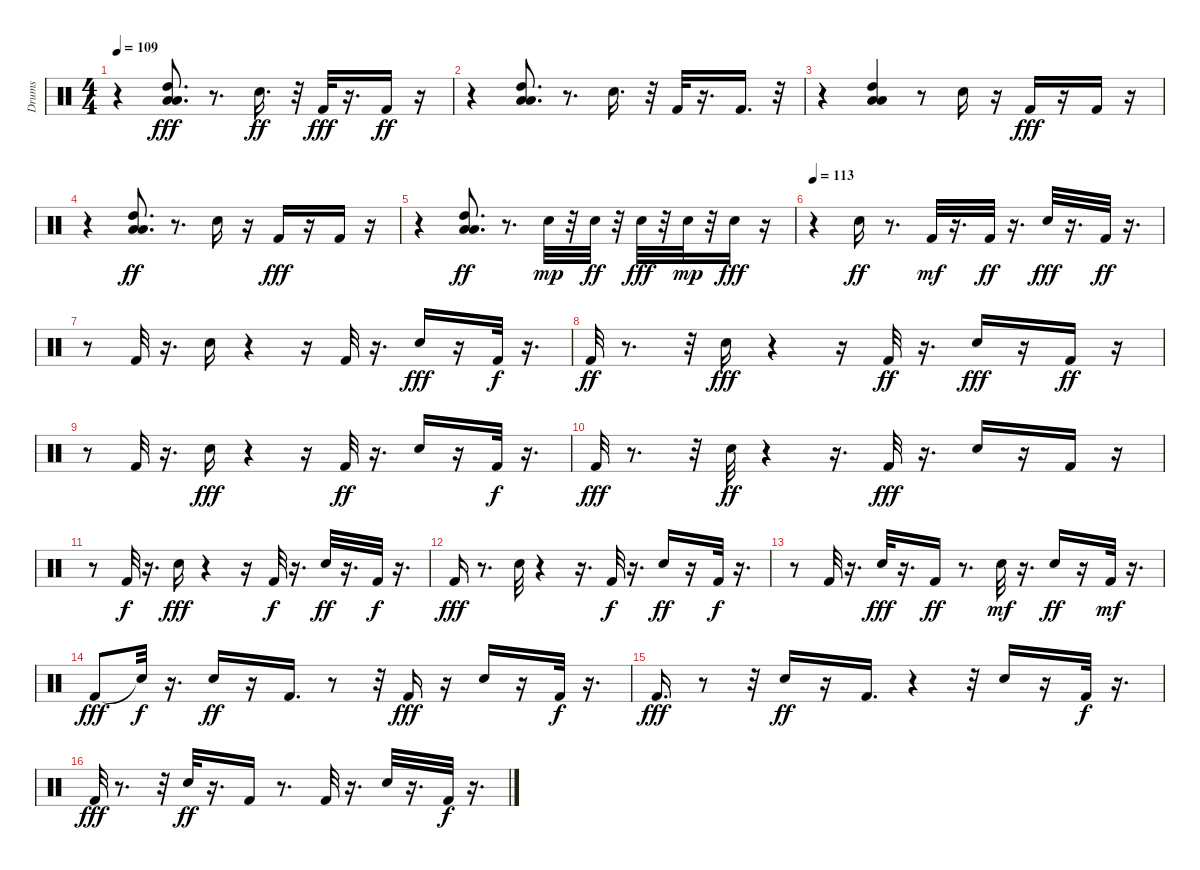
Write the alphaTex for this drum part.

\track ("Drums" "Drums") {instrument percussion}
\staff {score}
\articulation defaults
\ts (4 4)
\tempo 109
\clef neutral
\ks c
r.4{dy ff} ("Low Tom (hit)" "High Tom (hit)" "Low Floor Tom (hit)").8{d dy fff} r.8{d} "Hand Clap (hit)".16{d dy ff} r.32 "Kick (hit) 2".32{dy fff} r.16{d} "Kick (hit) 2".16{dy ff} r.16 |
r.4 ("Low Tom (hit)" "High Tom (hit)" "Low Floor Tom (hit)").8{d} r.8{d} "Hand Clap (hit)".16{d} r.32 "Kick (hit) 2".32 r.16{d} "Kick (hit) 2".16{d} r.32 |
r.4 ("Low Floor Tom (hit)" "Low Tom (hit)" "High Tom (hit)").4 r.8 "Hand Clap (hit)".16 r.16 "Kick (hit) 2".16{dy fff} r.16 "Kick (hit) 2".16 r.16 |
r.4 ("Low Floor Tom (hit)" "Low Tom (hit)" "High Tom (hit)").8{d dy ff} r.8{d} "Hand Clap (hit)".16 r.16 "Kick (hit) 2".16{dy fff} r.16 "Kick (hit) 2".16 r.16 |
r.4 ("Low Floor Tom (hit)" "Low Tom (hit)" "High Tom (hit)").8{d dy ff} r.8{d} "Snare (hit) 2".32{dy mp} r.32 "Snare (hit) 2".32{dy ff} r.32 "Snare (hit) 2".32{dy fff} r.32 "Snare (hit) 2".32{dy mp} r.32 "Snare (hit) 2".16{dy fff} r.16 |
\tempo 113
r.4 "Snare (hit) 2".16{dy ff} r.8{d} "Kick (hit) 2".32{dy mf} r.16{d} "Kick (hit) 2".32{dy ff} r.16{d} "Snare (hit) 2".32{dy fff} r.16{d} "Kick (hit) 2".32{dy ff} r.16{d} |
r.8 "Kick (hit) 2".32 r.16{d} "Snare (hit) 2".16 r.4 r.16 "Kick (hit) 2".32 r.16{d} "Snare (hit) 2".16{dy fff} r.16 "Kick (hit) 2".32{dy f} r.16{d} |
"Kick (hit) 2".32{dy ff} r.8{d} r.32 "Snare (hit) 2".16{dy fff} r.4 r.16 "Kick (hit) 2".32{dy ff} r.16{d} "Snare (hit) 2".16{dy fff} r.16 "Kick (hit) 2".16{dy ff} r.16 |
r.8 "Kick (hit) 2".32 r.16{d} "Snare (hit) 2".16{dy fff} r.4 r.16 "Kick (hit) 2".32{dy ff} r.16{d} "Snare (hit) 2".16 r.16 "Kick (hit) 2".32{dy f} r.16{d} |
"Kick (hit) 2".32{dy fff} r.8{d} r.32 "Snare (hit) 2".32{dy ff} r.4 r.16{d} "Kick (hit) 2".32{dy fff} r.16{d} "Snare (hit) 2".16 r.16 "Kick (hit) 2".16 r.16 |
r.8 "Kick (hit) 2".32{dy f} r.16{d} "Snare (hit) 2".16{dy fff} r.4 r.16 "Kick (hit) 2".32{dy f} r.16{d} "Snare (hit) 2".32{dy ff} r.16{d} "Kick (hit) 2".32{dy f} r.16{d} |
"Kick (hit) 2".16{dy fff} r.8{d} "Snare (hit) 2".32 r.4 r.16{d} "Kick (hit) 2".32{dy f} r.16{d} "Snare (hit) 2".16{dy ff} r.16 "Kick (hit) 2".32{dy f} r.16{d} |
r.8 "Kick (hit) 2".32 r.16{d} "Snare (hit) 2".32{dy fff} r.16{d} "Kick (hit) 2".16{dy ff} r.8{d} "Snare (hit) 2".32{dy mf} r.16{d} "Snare (hit) 2".16{dy ff} r.16 "Kick (hit) 2".32{dy mf} r.16{d} |
"Kick (hit) 2".8{dy fff} "Snare (hit)"{t}.32{dy f} r.16{d} "Snare (hit) 2".16{dy ff} r.16 "Kick (hit) 2".16{d} r.8 r.32 "Kick (hit) 2".16{dy fff} r.16 "Snare (hit) 2".16 r.16 "Kick (hit) 2".32{dy f} r.16{d} |
"Kick (hit) 2".16{d dy fff} r.8 r.32 "Snare (hit) 2".16{dy ff} r.16 "Kick (hit) 2".16{d} r.4 r.32 "Snare (hit) 2".16 r.16 "Kick (hit) 2".32{dy f} r.16{d} |
"Kick (hit) 2".32{dy fff} r.8{d} r.32 "Snare (hit) 2".32{dy ff} r.16{d} "Kick (hit) 2".16 r.8{d} "Kick (hit) 2".32 r.16{d} "Snare (hit) 2".32 r.16{d} "Kick (hit) 2".32{dy f} r.16{d}
